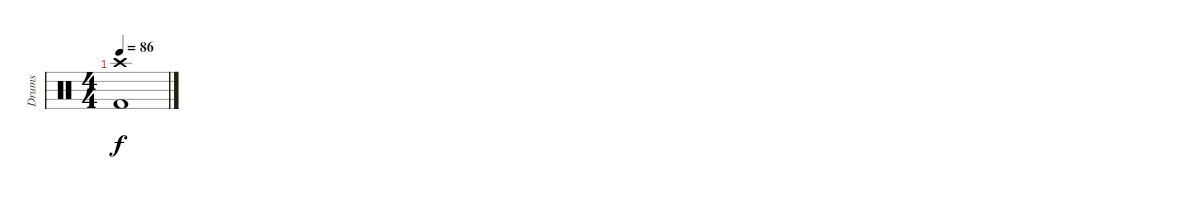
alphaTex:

\track ("Drums" "Drums") {instrument percussion}
\staff {score}
\articulation defaults
\ts (4 4)
\tempo 86
\clef neutral
\ks c
("Crash high (hit)" "Kick (hit) 2").1{dy f}
